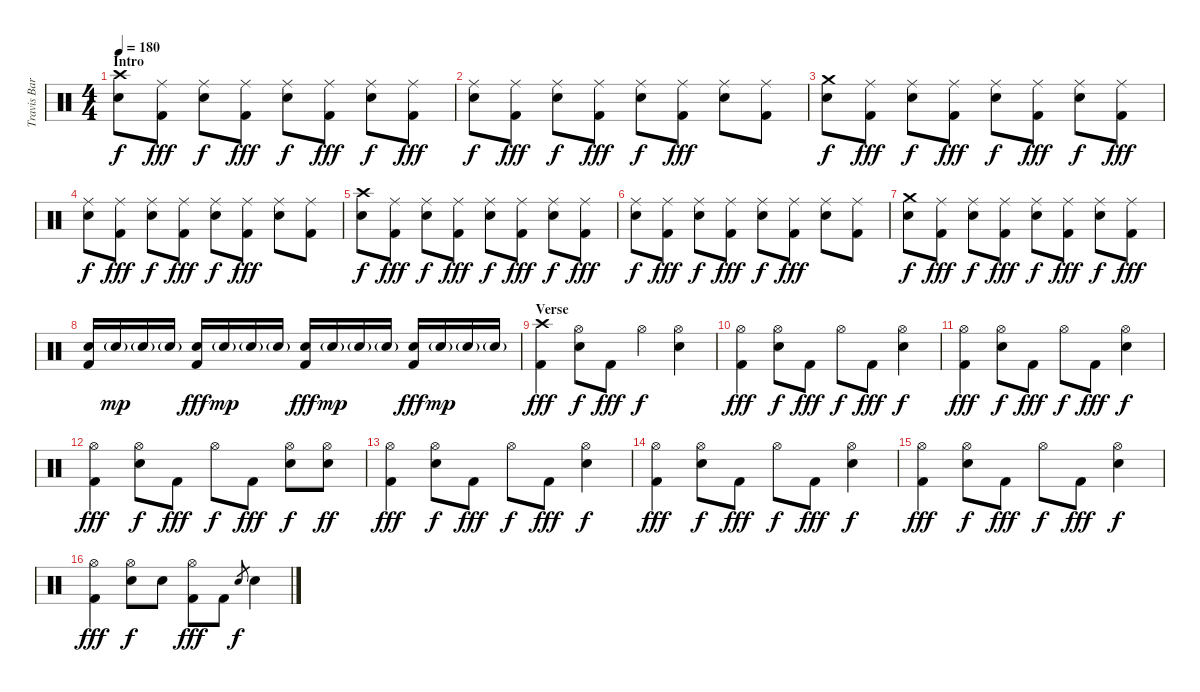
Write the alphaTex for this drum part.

\track ("Travis Barker" "Travis Bar") {instrument percussion}
\staff {score}
\articulation defaults
\ts (4 4)
\section ("" "Intro")
\tempo 180
\clef neutral
\ks c
("Crash high (hit)" "Electric Snare (hit)").8{dy f} ("Ride (middle)" "Kick (hit) 2").8{dy fff} ("Ride (middle)" "Electric Snare (hit)").8{dy f} ("Ride (middle)" "Kick (hit) 2").8{dy fff} ("Ride (middle)" "Electric Snare (hit)").8{dy f} ("Ride (middle)" "Kick (hit) 2").8{dy fff} ("Ride (middle)" "Electric Snare (hit)").8{dy f} ("Ride (middle)" "Kick (hit) 2").8{dy fff} |
("Ride (middle)" "Electric Snare (hit)").8{dy f} ("Ride (middle)" "Kick (hit) 2").8{dy fff} ("Ride (middle)" "Electric Snare (hit)").8{dy f} ("Ride (middle)" "Kick (hit) 2").8{dy fff} ("Ride (middle)" "Electric Snare (hit)").8{dy f} ("Ride (middle)" "Kick (hit) 2").8{dy fff} ("Ride (middle)" "Electric Snare (hit)").8 ("Ride (middle)" "Kick (hit) 2").8 |
("Crash medium (hit)" "Electric Snare (hit)").8{dy f} ("Ride (middle)" "Kick (hit) 2").8{dy fff} ("Ride (middle)" "Electric Snare (hit)").8{dy f} ("Ride (middle)" "Kick (hit) 2").8{dy fff} ("Ride (middle)" "Electric Snare (hit)").8{dy f} ("Ride (middle)" "Kick (hit) 2").8{dy fff} ("Ride (middle)" "Electric Snare (hit)").8{dy f} ("Ride (middle)" "Kick (hit) 2").8{dy fff} |
("Ride (middle)" "Electric Snare (hit)").8{dy f} ("Ride (middle)" "Kick (hit) 2").8{dy fff} ("Ride (middle)" "Electric Snare (hit)").8{dy f} ("Ride (middle)" "Kick (hit) 2").8{dy fff} ("Ride (middle)" "Electric Snare (hit)").8{dy f} ("Ride (middle)" "Kick (hit) 2").8{dy fff} ("Ride (middle)" "Electric Snare (hit)").8 ("Ride (middle)" "Kick (hit) 2").8 |
("Crash high (hit)" "Electric Snare (hit)").8{dy f} ("Ride (middle)" "Kick (hit) 2").8{dy fff} ("Ride (middle)" "Electric Snare (hit)").8{dy f} ("Ride (middle)" "Kick (hit) 2").8{dy fff} ("Ride (middle)" "Electric Snare (hit)").8{dy f} ("Ride (middle)" "Kick (hit) 2").8{dy fff} ("Ride (middle)" "Electric Snare (hit)").8{dy f} ("Ride (middle)" "Kick (hit) 2").8{dy fff} |
("Ride (middle)" "Electric Snare (hit)").8{dy f} ("Ride (middle)" "Kick (hit) 2").8{dy fff} ("Ride (middle)" "Electric Snare (hit)").8{dy f} ("Ride (middle)" "Kick (hit) 2").8{dy fff} ("Ride (middle)" "Electric Snare (hit)").8{dy f} ("Ride (middle)" "Kick (hit) 2").8{dy fff} ("Ride (middle)" "Electric Snare (hit)").8 ("Ride (middle)" "Kick (hit) 2").8 |
("Crash medium (hit)" "Electric Snare (hit)").8{dy f} ("Ride (middle)" "Kick (hit) 2").8{dy fff} ("Ride (middle)" "Electric Snare (hit)").8{dy f} ("Ride (middle)" "Kick (hit) 2").8{dy fff} ("Ride (middle)" "Electric Snare (hit)").8{dy f} ("Ride (middle)" "Kick (hit) 2").8{dy fff} ("Ride (middle)" "Electric Snare (hit)").8{dy f} ("Ride (middle)" "Kick (hit) 2").8{dy fff} |
("Electric Snare (hit)" "Kick (hit) 2").16 "Electric Snare (hit)"{g}.16{dy mp} "Electric Snare (hit)"{g}.16 "Electric Snare (hit)"{g}.16 ("Electric Snare (hit)" "Kick (hit) 2").16{dy fff} "Electric Snare (hit)"{g}.16{dy mp} "Electric Snare (hit)"{g}.16 "Electric Snare (hit)"{g}.16 ("Electric Snare (hit)" "Kick (hit) 2").16{dy fff} "Electric Snare (hit)"{g}.16{dy mp} "Electric Snare (hit)"{g}.16 "Electric Snare (hit)"{g}.16 ("Electric Snare (hit)" "Kick (hit) 2").16{dy fff} "Electric Snare (hit)"{g}.16{dy mp} "Electric Snare (hit)"{g}.16 "Electric Snare (hit)"{g}.16 |
\section ("" "Verse")
("Crash high (hit)" "Kick (hit) 2").4{dy fff} ("Hi-Hat (open)" "Electric Snare (hit)").8{dy f} "Kick (hit) 2".8{dy fff} "Hi-Hat (open)".4{dy f} ("Hi-Hat (open)" "Electric Snare (hit)").4 |
("Hi-Hat (open)" "Kick (hit) 2").4{dy fff} ("Hi-Hat (open)" "Electric Snare (hit)").8{dy f} "Kick (hit) 2".8{dy fff} "Hi-Hat (open)".8{dy f} "Kick (hit) 2".8{dy fff} ("Hi-Hat (open)" "Electric Snare (hit)").4{dy f} |
("Hi-Hat (open)" "Kick (hit) 2").4{dy fff} ("Hi-Hat (open)" "Electric Snare (hit)").8{dy f} "Kick (hit) 2".8{dy fff} "Hi-Hat (open)".8{dy f} "Kick (hit) 2".8{dy fff} ("Hi-Hat (open)" "Electric Snare (hit)").4{dy f} |
("Hi-Hat (open)" "Kick (hit) 2").4{dy fff} ("Hi-Hat (open)" "Electric Snare (hit)").8{dy f} "Kick (hit) 2".8{dy fff} "Hi-Hat (open)".8{dy f} "Kick (hit) 2".8{dy fff} ("Hi-Hat (open)" "Electric Snare (hit)").8{dy f} ("Hi-Hat (open)" "Electric Snare (hit)").8{dy ff} |
("Hi-Hat (open)" "Kick (hit) 2").4{dy fff} ("Hi-Hat (open)" "Electric Snare (hit)").8{dy f} "Kick (hit) 2".8{dy fff} "Hi-Hat (open)".8{dy f} "Kick (hit) 2".8{dy fff} ("Hi-Hat (open)" "Electric Snare (hit)").4{dy f} |
("Hi-Hat (open)" "Kick (hit) 2").4{dy fff} ("Hi-Hat (open)" "Electric Snare (hit)").8{dy f} "Kick (hit) 2".8{dy fff} "Hi-Hat (open)".8{dy f} "Kick (hit) 2".8{dy fff} ("Hi-Hat (open)" "Electric Snare (hit)").4{dy f} |
("Hi-Hat (open)" "Kick (hit) 2").4{dy fff} ("Hi-Hat (open)" "Electric Snare (hit)").8{dy f} "Kick (hit) 2".8{dy fff} "Hi-Hat (open)".8{dy f} "Kick (hit) 2".8{dy fff} ("Hi-Hat (open)" "Electric Snare (hit)").4{dy f} |
("Hi-Hat (open)" "Kick (hit) 2").4{dy fff} ("Hi-Hat (open)" "Electric Snare (hit)").8{dy f} "Electric Snare (hit)".8 ("Hi-Hat (open)" "Kick (hit) 2").8{dy fff} "Kick (hit) 2".8 "Electric Snare (hit)".8{gr dy f} "Electric Snare (hit)".4
